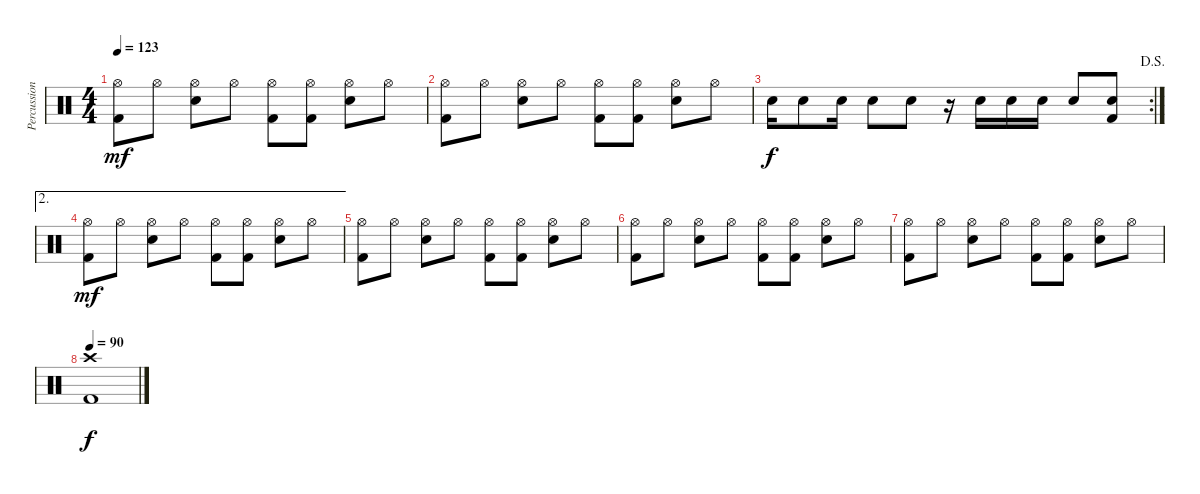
\track ("Percussion" "Percussion") {instrument percussion}
\staff {score}
\articulation defaults
\ts (4 4)
\tempo 123
\clef neutral
\ks c
("Hi-Hat (open)" "Kick (hit) 2").8{dy mf} "Hi-Hat (open)".8 ("Hi-Hat (open)" "Snare (hit) 2").8 "Hi-Hat (open)".8 ("Hi-Hat (open)" "Kick (hit) 2").8 ("Hi-Hat (open)" "Kick (hit) 2").8 ("Hi-Hat (open)" "Snare (hit) 2").8 "Hi-Hat (open)".8 |
("Hi-Hat (open)" "Kick (hit) 2").8 "Hi-Hat (open)".8 ("Hi-Hat (open)" "Snare (hit) 2").8 "Hi-Hat (open)".8 ("Hi-Hat (open)" "Kick (hit) 2").8 ("Hi-Hat (open)" "Kick (hit) 2").8 ("Hi-Hat (open)" "Snare (hit) 2").8 "Hi-Hat (open)".8 |
\rc 2
\jump dalsegno "Snare (hit) 2".16{dy f} "Snare (hit) 2".8 "Snare (hit) 2".16 "Snare (hit) 2".8 "Snare (hit) 2".8
r.16 "Snare (hit) 2".16 "Snare (hit) 2".16 "Snare (hit) 2".16 "Snare (hit) 2".8 ("Snare (hit) 2" "Kick (hit) 2").8 |
\ae 2
("Hi-Hat (open)" "Kick (hit) 2").8{dy mf} "Hi-Hat (open)".8 ("Hi-Hat (open)" "Snare (hit) 2").8 "Hi-Hat (open)".8 ("Hi-Hat (open)" "Kick (hit) 2").8 ("Hi-Hat (open)" "Kick (hit) 2").8 ("Hi-Hat (open)" "Snare (hit) 2").8 "Hi-Hat (open)".8 |
("Hi-Hat (open)" "Kick (hit) 2").8 "Hi-Hat (open)".8 ("Hi-Hat (open)" "Snare (hit) 2").8 "Hi-Hat (open)".8 ("Hi-Hat (open)" "Kick (hit) 2").8 ("Hi-Hat (open)" "Kick (hit) 2").8 ("Hi-Hat (open)" "Snare (hit) 2").8 "Hi-Hat (open)".8 |
("Hi-Hat (open)" "Kick (hit) 2").8 "Hi-Hat (open)".8 ("Hi-Hat (open)" "Snare (hit) 2").8 "Hi-Hat (open)".8 ("Hi-Hat (open)" "Kick (hit) 2").8 ("Hi-Hat (open)" "Kick (hit) 2").8 ("Hi-Hat (open)" "Snare (hit) 2").8 "Hi-Hat (open)".8 |
("Hi-Hat (open)" "Kick (hit) 2").8 "Hi-Hat (open)".8 ("Hi-Hat (open)" "Snare (hit) 2").8 "Hi-Hat (open)".8 ("Hi-Hat (open)" "Kick (hit) 2").8 ("Hi-Hat (open)" "Kick (hit) 2").8 ("Hi-Hat (open)" "Snare (hit) 2").8 "Hi-Hat (open)".8 |
\tempo 90
("Crash high (hit)" "Kick (hit) 2").1{dy f}
